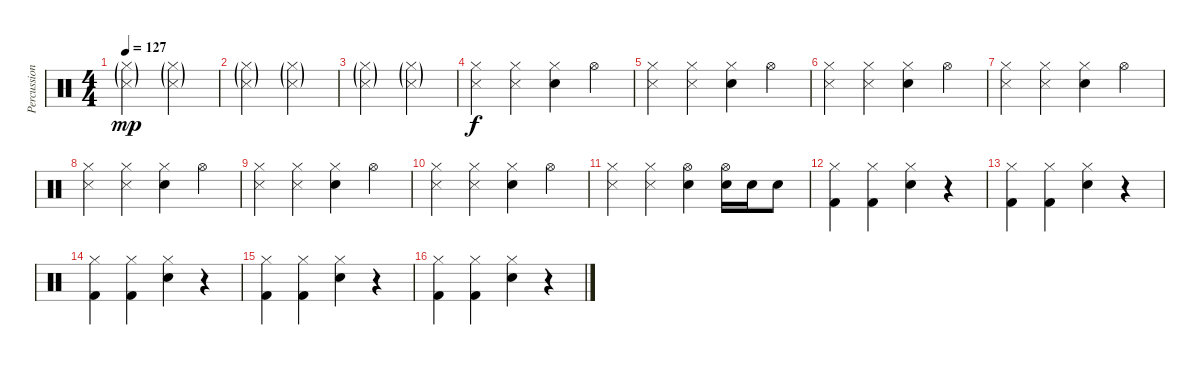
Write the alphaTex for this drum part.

\track ("Percussion" "Percussion") {instrument percussion}
\staff {score}
\articulation defaults
\ts (4 4)
\tempo 127
\clef neutral
\ks c
("Hi-Hat (closed)"{g} "Snare (side stick) 3"{g}).2{dy mp} ("Hi-Hat (closed)"{g} "Snare (side stick) 3"{g}).2 |
("Hi-Hat (closed)"{g} "Snare (side stick) 3"{g}).2 ("Hi-Hat (closed)"{g} "Snare (side stick) 3"{g}).2 |
("Hi-Hat (closed)"{g} "Snare (side stick) 3"{g}).2 ("Hi-Hat (closed)"{g} "Snare (side stick) 3"{g}).2 |
("Hi-Hat (closed)" "Snare (side stick) 3").4{dy f} ("Hi-Hat (closed)" "Snare (side stick) 3").4 ("Hi-Hat (closed)" "Electric Snare (hit)").4 "Hi-Hat (open)".4 |
("Hi-Hat (closed)" "Snare (side stick) 3").4 ("Hi-Hat (closed)" "Snare (side stick) 3").4 ("Hi-Hat (closed)" "Electric Snare (hit)").4 "Hi-Hat (open)".4 |
("Hi-Hat (closed)" "Snare (side stick) 3").4 ("Hi-Hat (closed)" "Snare (side stick) 3").4 ("Hi-Hat (closed)" "Electric Snare (hit)").4 "Hi-Hat (open)".4 |
("Hi-Hat (closed)" "Snare (side stick) 3").4 ("Hi-Hat (closed)" "Snare (side stick) 3").4 ("Hi-Hat (closed)" "Electric Snare (hit)").4 "Hi-Hat (open)".4 |
("Hi-Hat (closed)" "Snare (side stick) 3").4 ("Hi-Hat (closed)" "Snare (side stick) 3").4 ("Hi-Hat (closed)" "Electric Snare (hit)").4 "Hi-Hat (open)".4 |
("Hi-Hat (closed)" "Snare (side stick) 3").4 ("Hi-Hat (closed)" "Snare (side stick) 3").4 ("Hi-Hat (closed)" "Electric Snare (hit)").4 "Hi-Hat (open)".4 |
("Hi-Hat (closed)" "Snare (side stick) 3").4 ("Hi-Hat (closed)" "Snare (side stick) 3").4 ("Hi-Hat (closed)" "Electric Snare (hit)").4 "Hi-Hat (open)".4 |
("Hi-Hat (closed)" "Snare (side stick) 3").4 ("Hi-Hat (closed)" "Snare (side stick) 3").4 ("Hi-Hat (open)" "Electric Snare (hit)").4 ("Hi-Hat (open)" "Electric Snare (hit)").16 "Electric Snare (hit)".16 "Electric Snare (hit)".8 |
("Hi-Hat (closed)" "Kick (hit) 2").4 ("Hi-Hat (closed)" "Kick (hit) 2").4 ("Hi-Hat (closed)" "Electric Snare (hit)").4 r.4 |
("Hi-Hat (closed)" "Kick (hit) 2").4 ("Hi-Hat (closed)" "Kick (hit) 2").4 ("Hi-Hat (closed)" "Electric Snare (hit)").4 r.4 |
("Hi-Hat (closed)" "Kick (hit) 2").4 ("Hi-Hat (closed)" "Kick (hit) 2").4 ("Hi-Hat (closed)" "Electric Snare (hit)").4 r.4 |
("Hi-Hat (closed)" "Kick (hit) 2").4 ("Hi-Hat (closed)" "Kick (hit) 2").4 ("Hi-Hat (closed)" "Electric Snare (hit)").4 r.4 |
("Hi-Hat (closed)" "Kick (hit) 2").4 ("Hi-Hat (closed)" "Kick (hit) 2").4 ("Hi-Hat (closed)" "Electric Snare (hit)").4 r.4
